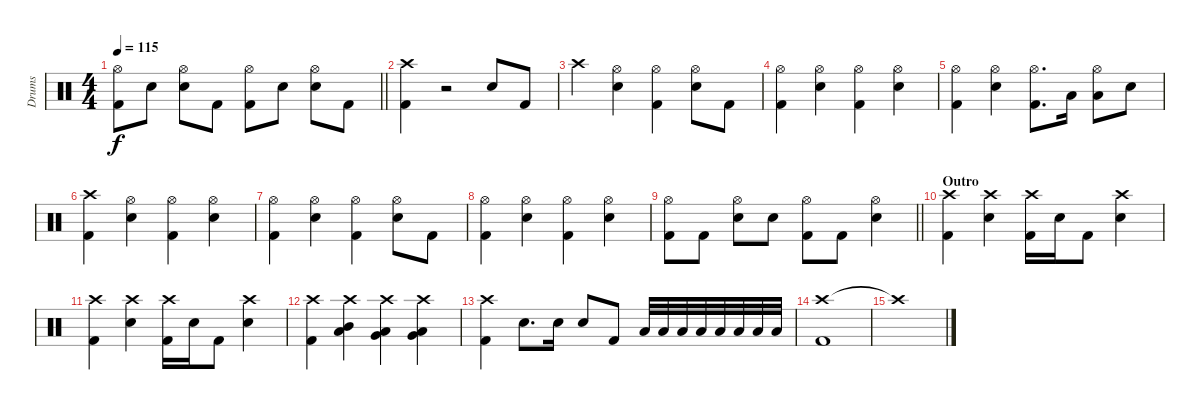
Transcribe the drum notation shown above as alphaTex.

\track ("Drums" "Drums") {instrument percussion}
\staff {score}
\articulation defaults
\ts (4 4)
\tempo 115
\clef neutral
\barLineRight lightlight
\ks c
("Hi-Hat (open)" "Kick (hit) 2").8{dy f} "Snare (hit) 2".8 ("Hi-Hat (open)" "Snare (hit) 2").8 "Kick (hit) 2".8 ("Hi-Hat (open)" "Kick (hit) 2").8 "Snare (hit) 2".8 ("Hi-Hat (open)" "Snare (hit) 2").8 "Kick (hit) 2".8 |
("Crash high (hit)" "Kick (hit) 2").4 r.2 "Snare (hit) 2".8 "Kick (hit) 2".8 |
"Crash high (hit)".4 ("Hi-Hat (open)" "Snare (hit) 2").4 ("Hi-Hat (open)" "Kick (hit) 2").4 ("Hi-Hat (open)" "Snare (hit) 2").8 "Kick (hit) 2".8 |
("Hi-Hat (open)" "Kick (hit) 2").4 ("Hi-Hat (open)" "Snare (hit) 2").4 ("Hi-Hat (open)" "Kick (hit) 2").4 ("Hi-Hat (open)" "Snare (hit) 2").4 |
("Hi-Hat (open)" "Kick (hit) 2").4 ("Hi-Hat (open)" "Snare (hit) 2").4 ("Hi-Hat (open)" "Kick (hit) 2").8{d} "Low Tom (hit)".16 ("Hi-Hat (open)" "Low Tom (hit)").8 "Snare (hit) 2".8 |
("Crash high (hit)" "Kick (hit) 2").4 ("Hi-Hat (open)" "Snare (hit) 2").4 ("Hi-Hat (open)" "Kick (hit) 2").4 ("Hi-Hat (open)" "Snare (hit) 2").4 |
("Hi-Hat (open)" "Kick (hit) 2").4 ("Hi-Hat (open)" "Snare (hit) 2").4 ("Hi-Hat (open)" "Kick (hit) 2").4 ("Hi-Hat (open)" "Snare (hit) 2").8 "Kick (hit) 2".8 |
("Hi-Hat (open)" "Kick (hit) 2").4 ("Hi-Hat (open)" "Snare (hit) 2").4 ("Hi-Hat (open)" "Kick (hit) 2").4 ("Hi-Hat (open)" "Snare (hit) 2").4 |
\barLineRight lightlight
("Hi-Hat (open)" "Kick (hit) 2").8 "Kick (hit) 2".8 ("Hi-Hat (open)" "Snare (hit) 2").8 "Snare (hit) 2".8 ("Hi-Hat (open)" "Kick (hit) 2").8 "Kick (hit) 2".8 ("Hi-Hat (open)" "Snare (hit) 2").4 |
\section ("" "Outro")
("Crash high (hit)" "Kick (hit) 2").4 ("Crash high (hit)" "Snare (hit) 2").4 ("Crash high (hit)" "Kick (hit) 2").16 "Snare (hit) 2".16 "Kick (hit) 2".8 ("Crash high (hit)" "Snare (hit) 2").4 |
("Crash high (hit)" "Kick (hit) 2").4 ("Crash high (hit)" "Snare (hit) 2").4 ("Crash high (hit)" "Kick (hit) 2").16 "Snare (hit) 2".16 "Kick (hit) 2".8 ("Crash high (hit)" "Snare (hit) 2").4 |
("Crash high (hit)" "Kick (hit) 2").4 ("Crash high (hit)" "Mid Tom (hit)" "Low Tom (hit)").4 ("Crash high (hit)" "Low Tom (hit)" "Very Low Tom (hit)").4 ("Crash high (hit)" "Very Low Tom (hit)" "Low Floor Tom (hit)").4 |
("Crash high (hit)" "Kick (hit) 2").4 "Snare (hit) 2".8{d} "Snare (hit) 2".16 "Snare (hit) 2".8 "Kick (hit) 2".8 "Low Tom (hit)".32 "Low Tom (hit)".32 "Low Tom (hit)".32 "Low Tom (hit)".32 "Low Tom (hit)".32 "Low Tom (hit)".32 "Low Tom (hit)".32 "Low Tom (hit)".32 |
("Crash high (hit)" "Kick (hit) 2").1 |
"Crash high (hit)"{t}.1
